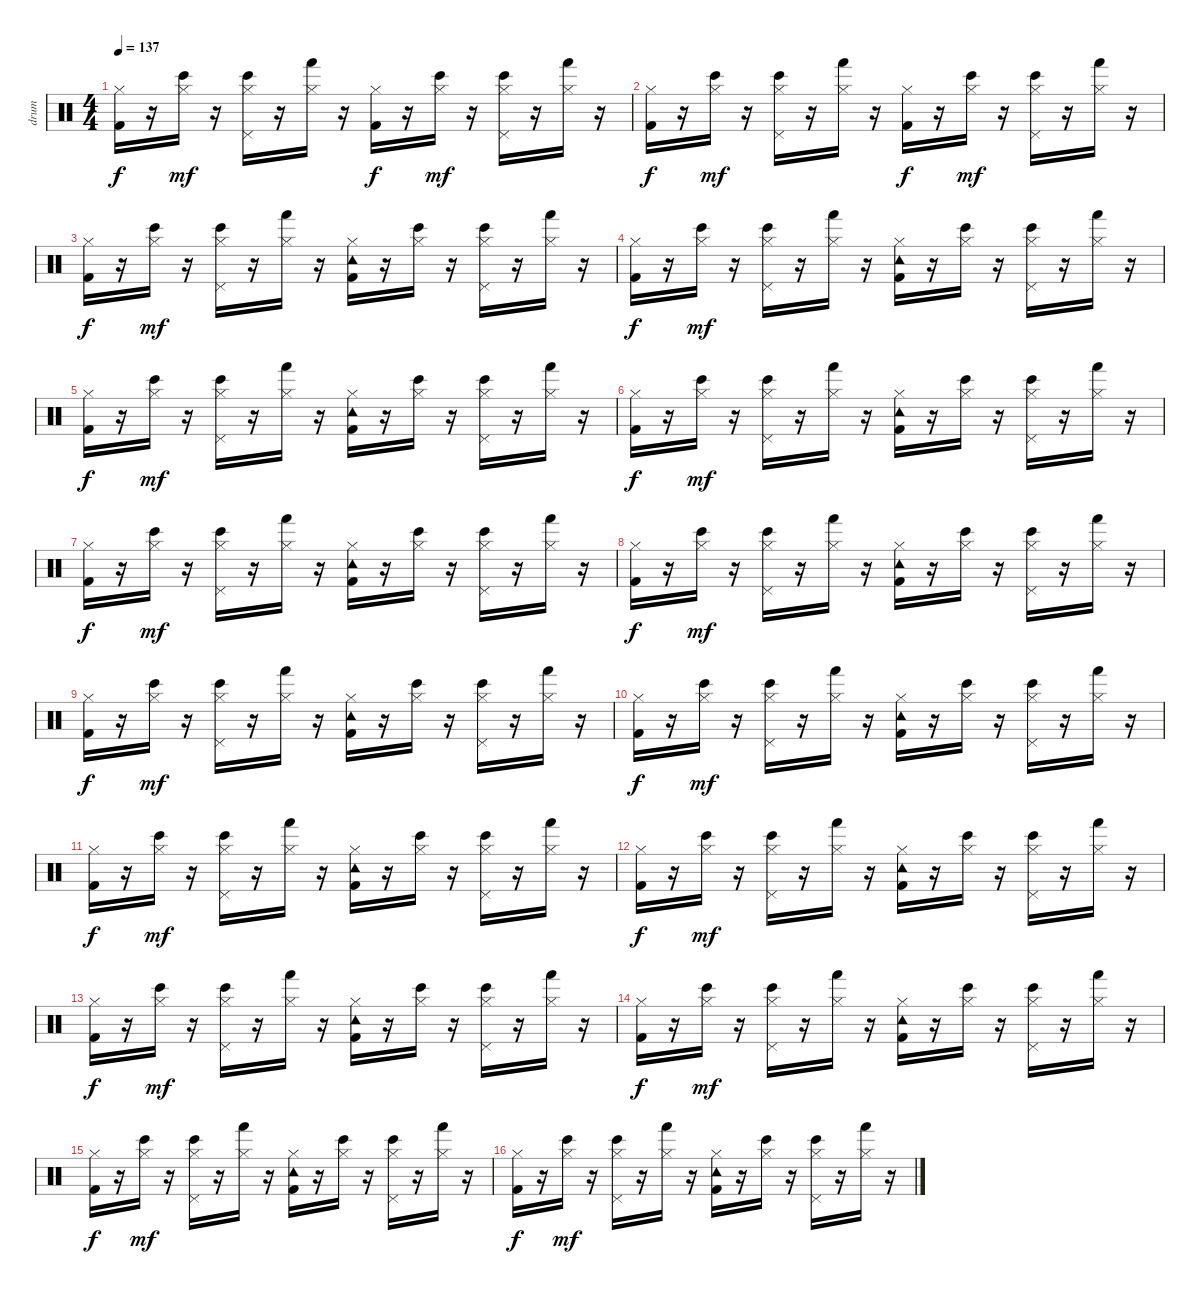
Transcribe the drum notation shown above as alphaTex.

\track ("drum" "drum") {instrument percussion}
\staff {score}
\articulation defaults
\ts (4 4)
\tempo 137
\clef neutral
\ks c
("Hi-Hat (closed)" "Kick (hit) 2").16{dy f} r.16 ("Hi-Hat (closed)" "Bongo High (hit)").16{dy mf} r.16 ("Hi-Hat (closed)" "Bongo High (hit)" "Pedal Hi-Hat (hit)").16 r.16 ("Hand (hit)" "Hi-Hat (closed)").16 r.16 ("Hi-Hat (closed)" "Kick (hit) 2").16{dy f} r.16 ("Bongo High (hit)" "Hi-Hat (closed)").16{dy mf} r.16 ("Bongo High (hit)" "Hi-Hat (closed)" "Pedal Hi-Hat (hit)").16 r.16 ("Hand (hit)" "Hi-Hat (closed)").16 r.16 |
("Hi-Hat (closed)" "Kick (hit) 2").16{dy f} r.16 ("Hi-Hat (closed)" "Bongo High (hit)").16{dy mf} r.16 ("Bongo High (hit)" "Hi-Hat (closed)" "Pedal Hi-Hat (hit)").16 r.16 ("Hi-Hat (closed)" "Hand (hit)").16 r.16 ("Hi-Hat (closed)" "Kick (hit) 2").16{dy f} r.16 ("Bongo High (hit)" "Hi-Hat (closed)").16{dy mf} r.16 ("Bongo High (hit)" "Hi-Hat (closed)" "Pedal Hi-Hat (hit)").16 r.16 ("Hi-Hat (closed)" "Hand (hit)").16 r.16 |
("Hi-Hat (closed)" "Kick (hit) 2").16{dy f} r.16 ("Bongo High (hit)" "Hi-Hat (closed)").16{dy mf} r.16 ("Bongo High (hit)" "Hi-Hat (closed)" "Pedal Hi-Hat (hit)").16 r.16 ("Hi-Hat (closed)" "Hand (hit)").16 r.16 ("Kick (hit) 2" "Tambourine (hit)" "Hi-Hat (closed)").16 r.16 ("Bongo High (hit)" "Hi-Hat (closed)").16 r.16 ("Bongo High (hit)" "Hi-Hat (closed)" "Pedal Hi-Hat (hit)").16 r.16 ("Hand (hit)" "Hi-Hat (closed)").16 r.16 |
("Kick (hit) 2" "Hi-Hat (closed)").16{dy f} r.16 ("Hi-Hat (closed)" "Bongo High (hit)").16{dy mf} r.16 ("Bongo High (hit)" "Hi-Hat (closed)" "Pedal Hi-Hat (hit)").16 r.16 ("Hand (hit)" "Hi-Hat (closed)").16 r.16 ("Tambourine (hit)" "Hi-Hat (closed)" "Kick (hit) 2").16 r.16 ("Bongo High (hit)" "Hi-Hat (closed)").16 r.16 ("Hi-Hat (closed)" "Bongo High (hit)" "Pedal Hi-Hat (hit)").16 r.16 ("Hi-Hat (closed)" "Hand (hit)").16 r.16 |
("Kick (hit) 2" "Hi-Hat (closed)").16{dy f} r.16 ("Hi-Hat (closed)" "Bongo High (hit)").16{dy mf} r.16 ("Hi-Hat (closed)" "Bongo High (hit)" "Pedal Hi-Hat (hit)").16 r.16 ("Hand (hit)" "Hi-Hat (closed)").16 r.16 ("Hi-Hat (closed)" "Tambourine (hit)" "Kick (hit) 2").16 r.16 ("Bongo High (hit)" "Hi-Hat (closed)").16 r.16 ("Bongo High (hit)" "Hi-Hat (closed)" "Pedal Hi-Hat (hit)").16 r.16 ("Hi-Hat (closed)" "Hand (hit)").16 r.16 |
("Kick (hit) 2" "Hi-Hat (closed)").16{dy f} r.16 ("Bongo High (hit)" "Hi-Hat (closed)").16{dy mf} r.16 ("Hi-Hat (closed)" "Bongo High (hit)" "Pedal Hi-Hat (hit)").16 r.16 ("Hand (hit)" "Hi-Hat (closed)").16 r.16 ("Tambourine (hit)" "Hi-Hat (closed)" "Kick (hit) 2").16 r.16 ("Bongo High (hit)" "Hi-Hat (closed)").16 r.16 ("Hi-Hat (closed)" "Bongo High (hit)" "Pedal Hi-Hat (hit)").16 r.16 ("Hi-Hat (closed)" "Hand (hit)").16 r.16 |
("Kick (hit) 2" "Hi-Hat (closed)").16{dy f} r.16 ("Bongo High (hit)" "Hi-Hat (closed)").16{dy mf} r.16 ("Hi-Hat (closed)" "Bongo High (hit)" "Pedal Hi-Hat (hit)").16 r.16 ("Hand (hit)" "Hi-Hat (closed)").16 r.16 ("Tambourine (hit)" "Hi-Hat (closed)" "Kick (hit) 2").16 r.16 ("Hi-Hat (closed)" "Bongo High (hit)").16 r.16 ("Hi-Hat (closed)" "Bongo High (hit)" "Pedal Hi-Hat (hit)").16 r.16 ("Hand (hit)" "Hi-Hat (closed)").16 r.16 |
("Kick (hit) 2" "Hi-Hat (closed)").16{dy f} r.16 ("Bongo High (hit)" "Hi-Hat (closed)").16{dy mf} r.16 ("Hi-Hat (closed)" "Bongo High (hit)" "Pedal Hi-Hat (hit)").16 r.16 ("Hand (hit)" "Hi-Hat (closed)").16 r.16 ("Tambourine (hit)" "Hi-Hat (closed)" "Kick (hit) 2").16 r.16 ("Hi-Hat (closed)" "Bongo High (hit)").16 r.16 ("Hi-Hat (closed)" "Bongo High (hit)" "Pedal Hi-Hat (hit)").16 r.16 ("Hand (hit)" "Hi-Hat (closed)").16 r.16 |
("Hi-Hat (closed)" "Kick (hit) 2").16{dy f} r.16 ("Hi-Hat (closed)" "Bongo High (hit)").16{dy mf} r.16 ("Bongo High (hit)" "Hi-Hat (closed)" "Pedal Hi-Hat (hit)").16 r.16 ("Hand (hit)" "Hi-Hat (closed)").16 r.16 ("Kick (hit) 2" "Hi-Hat (closed)" "Tambourine (hit)").16 r.16 ("Hi-Hat (closed)" "Bongo High (hit)").16 r.16 ("Hi-Hat (closed)" "Bongo High (hit)" "Pedal Hi-Hat (hit)").16 r.16 ("Hand (hit)" "Hi-Hat (closed)").16 r.16 |
("Kick (hit) 2" "Hi-Hat (closed)").16{dy f} r.16 ("Bongo High (hit)" "Hi-Hat (closed)").16{dy mf} r.16 ("Bongo High (hit)" "Hi-Hat (closed)" "Pedal Hi-Hat (hit)").16 r.16 ("Hand (hit)" "Hi-Hat (closed)").16 r.16 ("Tambourine (hit)" "Kick (hit) 2" "Hi-Hat (closed)").16 r.16 ("Bongo High (hit)" "Hi-Hat (closed)").16 r.16 ("Hi-Hat (closed)" "Bongo High (hit)" "Pedal Hi-Hat (hit)").16 r.16 ("Hi-Hat (closed)" "Hand (hit)").16 r.16 |
("Hi-Hat (closed)" "Kick (hit) 2").16{dy f} r.16 ("Bongo High (hit)" "Hi-Hat (closed)").16{dy mf} r.16 ("Hi-Hat (closed)" "Bongo High (hit)" "Pedal Hi-Hat (hit)").16 r.16 ("Hand (hit)" "Hi-Hat (closed)").16 r.16 ("Kick (hit) 2" "Hi-Hat (closed)" "Tambourine (hit)").16 r.16 ("Hi-Hat (closed)" "Bongo High (hit)").16 r.16 ("Bongo High (hit)" "Hi-Hat (closed)" "Pedal Hi-Hat (hit)").16 r.16 ("Hand (hit)" "Hi-Hat (closed)").16 r.16 |
("Kick (hit) 2" "Hi-Hat (closed)").16{dy f} r.16 ("Bongo High (hit)" "Hi-Hat (closed)").16{dy mf} r.16 ("Hi-Hat (closed)" "Bongo High (hit)" "Pedal Hi-Hat (hit)").16 r.16 ("Hi-Hat (closed)" "Hand (hit)").16 r.16 ("Tambourine (hit)" "Hi-Hat (closed)" "Kick (hit) 2").16 r.16 ("Hi-Hat (closed)" "Bongo High (hit)").16 r.16 ("Bongo High (hit)" "Hi-Hat (closed)" "Pedal Hi-Hat (hit)").16 r.16 ("Hi-Hat (closed)" "Hand (hit)").16 r.16 |
("Kick (hit) 2" "Hi-Hat (closed)").16{dy f} r.16 ("Bongo High (hit)" "Hi-Hat (closed)").16{dy mf} r.16 ("Bongo High (hit)" "Hi-Hat (closed)" "Pedal Hi-Hat (hit)").16 r.16 ("Hi-Hat (closed)" "Hand (hit)").16 r.16 ("Tambourine (hit)" "Hi-Hat (closed)" "Kick (hit) 2").16 r.16 ("Bongo High (hit)" "Hi-Hat (closed)").16 r.16 ("Hi-Hat (closed)" "Bongo High (hit)" "Pedal Hi-Hat (hit)").16 r.16 ("Hand (hit)" "Hi-Hat (closed)").16 r.16 |
("Kick (hit) 2" "Hi-Hat (closed)").16{dy f} r.16 ("Bongo High (hit)" "Hi-Hat (closed)").16{dy mf} r.16 ("Bongo High (hit)" "Hi-Hat (closed)" "Pedal Hi-Hat (hit)").16 r.16 ("Hand (hit)" "Hi-Hat (closed)").16 r.16 ("Tambourine (hit)" "Hi-Hat (closed)" "Kick (hit) 2").16 r.16 ("Hi-Hat (closed)" "Bongo High (hit)").16 r.16 ("Bongo High (hit)" "Hi-Hat (closed)" "Pedal Hi-Hat (hit)").16 r.16 ("Hi-Hat (closed)" "Hand (hit)").16 r.16 |
("Kick (hit) 2" "Hi-Hat (closed)").16{dy f} r.16 ("Hi-Hat (closed)" "Bongo High (hit)").16{dy mf} r.16 ("Hi-Hat (closed)" "Bongo High (hit)" "Pedal Hi-Hat (hit)").16 r.16 ("Hand (hit)" "Hi-Hat (closed)").16 r.16 ("Tambourine (hit)" "Kick (hit) 2" "Hi-Hat (closed)").16 r.16 ("Hi-Hat (closed)" "Bongo High (hit)").16 r.16 ("Bongo High (hit)" "Hi-Hat (closed)" "Pedal Hi-Hat (hit)").16 r.16 ("Hand (hit)" "Hi-Hat (closed)").16 r.16 |
("Hi-Hat (closed)" "Kick (hit) 2").16{dy f} r.16 ("Bongo High (hit)" "Hi-Hat (closed)").16{dy mf} r.16 ("Hi-Hat (closed)" "Bongo High (hit)" "Pedal Hi-Hat (hit)").16 r.16 ("Hand (hit)" "Hi-Hat (closed)").16 r.16 ("Tambourine (hit)" "Kick (hit) 2" "Hi-Hat (closed)").16 r.16 ("Bongo High (hit)" "Hi-Hat (closed)").16 r.16 ("Hi-Hat (closed)" "Bongo High (hit)" "Pedal Hi-Hat (hit)").16 r.16 ("Hand (hit)" "Hi-Hat (closed)").16 r.16
